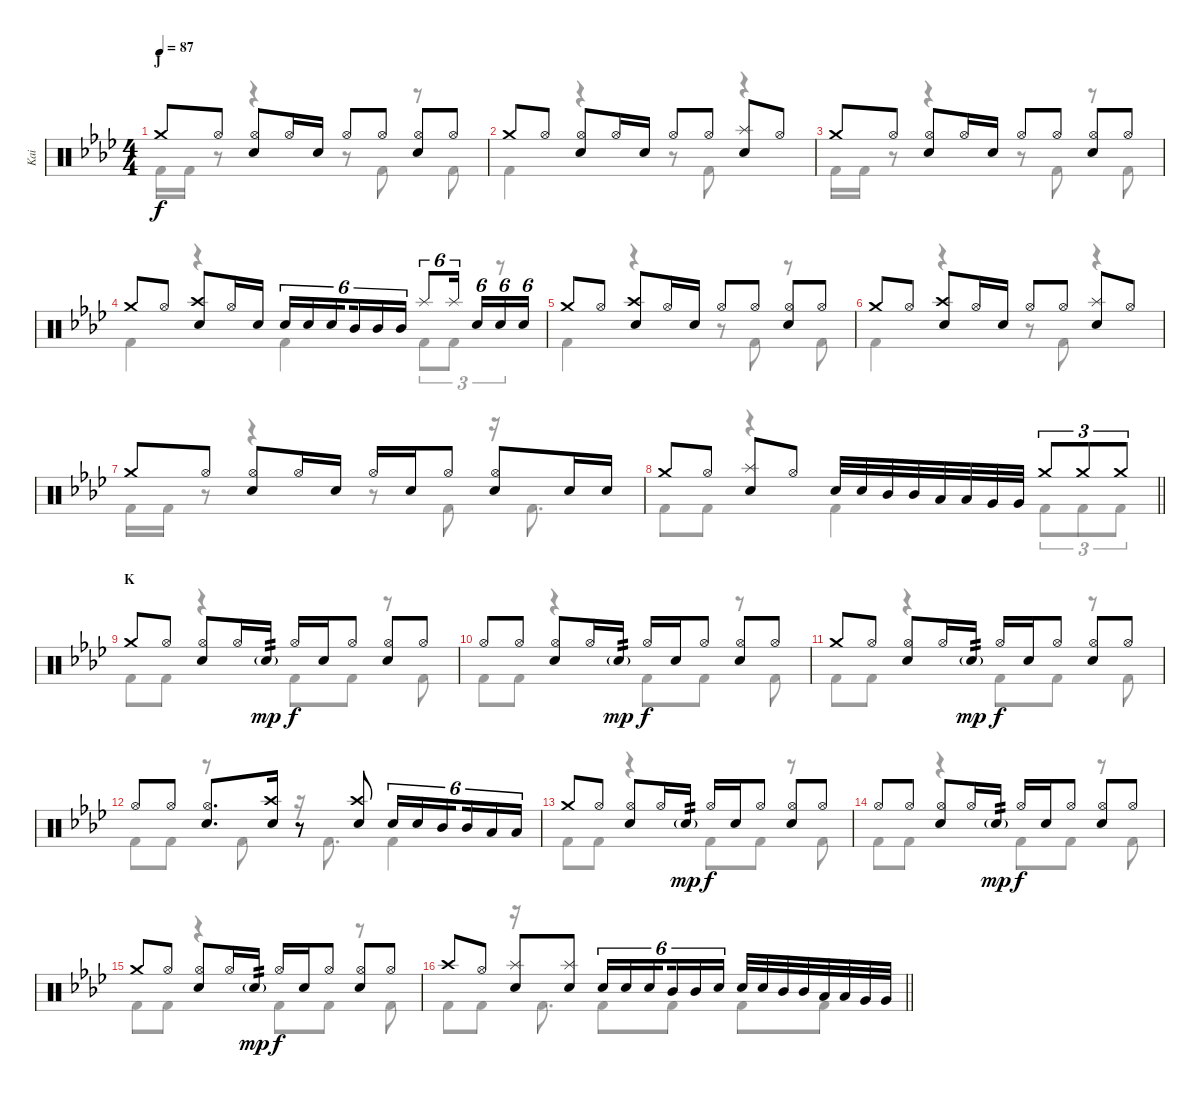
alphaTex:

\track ("Kai" "Kai") {instrument percussion}
\staff {score}
\articulation defaults
\voice
\ts (4 4)
\section ("" "J")
\tempo 87
\clef neutral
\ks ab "Crash medium (hit)".8{dy f} "Hi-Hat (open)".8
("Hi-Hat (open)" "Snare (hit) 2").8 "Hi-Hat (open)".16 "Snare (hit) 2".16 "Hi-Hat (open)".8 "Hi-Hat (open)".8 ("Hi-Hat (open)" "Snare (hit) 2").8 "Hi-Hat (open)".8 |
"Crash medium (hit)".8 "Hi-Hat (open)".8 ("Hi-Hat (open)" "Snare (hit) 2").8 "Hi-Hat (open)".16 "Snare (hit) 2".16 "Hi-Hat (open)".8 "Hi-Hat (open)".8 ("Splash (hit)" "Snare (hit) 2").8 "Hi-Hat (open)".8 |
"Crash medium (hit)".8 "Hi-Hat (open)".8 ("Hi-Hat (open)" "Snare (hit) 2").8 "Hi-Hat (open)".16 "Snare (hit) 2".16 "Hi-Hat (open)".8 "Hi-Hat (open)".8 ("Hi-Hat (open)" "Snare (hit) 2").8 "Hi-Hat (open)".8 |
"Crash medium (hit)".8 "Hi-Hat (open)".8 ("Crash high (hit)" "Snare (hit) 2").8 "Hi-Hat (open)".16 "Snare (hit) 2".16 "Snare (hit) 2".16{tu (6 4)} "Snare (hit) 2".16{tu (6 4)} "Snare (hit) 2".16{tu (6 4) beam splitsecondary} "Mid Tom (hit)".16{tu (6 4)} "Mid Tom (hit)".16{tu (6 4)} "Mid Tom (hit)".16{tu (6 4)} "Splash (hit)".8{tu (6 4)} "Splash (hit)".16{tu (6 4) beam splitsecondary} "Snare (hit) 2".16{tu (6 4)} "Snare (hit) 2".16{tu (6 4)} "Snare (hit) 2".16{tu (6 4)} |
"Crash medium (hit)".8 "Hi-Hat (open)".8 ("Crash high (hit)" "Snare (hit) 2").8 "Hi-Hat (open)".16 "Snare (hit) 2".16 "Hi-Hat (open)".8 "Hi-Hat (open)".8 ("Hi-Hat (open)" "Snare (hit) 2").8 "Hi-Hat (open)".8 |
"Crash medium (hit)".8 "Hi-Hat (open)".8 ("Crash high (hit)" "Snare (hit) 2").8 "Hi-Hat (open)".16 "Snare (hit) 2".16 "Hi-Hat (open)".8 "Hi-Hat (open)".8 ("Splash (hit)" "Snare (hit) 2").8 "Hi-Hat (open)".8 |
"Crash medium (hit)".8 "Hi-Hat (open)".8 ("Hi-Hat (open)" "Snare (hit) 2").8 "Hi-Hat (open)".16 "Snare (hit) 2".16 "Hi-Hat (open)".16 "Snare (hit) 2".16 "Hi-Hat (open)".8 ("Hi-Hat (open)" "Snare (hit) 2").8 "Snare (hit) 2".16 "Snare (hit) 2".16 |
\barLineRight lightlight "Crash medium (hit)".8 "Hi-Hat (open)".8
("Splash (hit)" "Snare (hit) 2").8 "Hi-Hat (open)".8 "Snare (hit) 2".32 "Snare (hit) 2".32 "Mid Tom (hit)".32 "Mid Tom (hit)".32 "Low Tom (hit)".32 "Low Tom (hit)".32 "Very Low Tom (hit)".32 "Very Low Tom (hit)".32 "Crash medium (hit)".8{tu (3 2)} "Crash medium (hit)".8{tu (3 2)} "Crash medium (hit)".8{tu (3 2)} |
\section ("" "K")
"Crash medium (hit)".8 "Hi-Hat (open)".8 ("Hi-Hat (open)" "Snare (hit) 2").8 "Hi-Hat (open)".16 "Snare (hit) 2"{g}.16{tp 2 dy mp} "Hi-Hat (open)".16{dy f} "Snare (hit) 2".16 "Hi-Hat (open)".8 ("Hi-Hat (open)" "Snare (hit) 2").8 "Hi-Hat (open)".8 |
"Hi-Hat (open)".8 "Hi-Hat (open)".8 ("Hi-Hat (open)" "Snare (hit) 2").8 "Hi-Hat (open)".16 "Snare (hit) 2"{g}.16{tp 2 dy mp} "Hi-Hat (open)".16{dy f} "Snare (hit) 2".16 "Hi-Hat (open)".8 ("Hi-Hat (open)" "Snare (hit) 2").8 "Hi-Hat (open)".8 |
"Crash medium (hit)".8 "Hi-Hat (open)".8 ("Hi-Hat (open)" "Snare (hit) 2").8 "Hi-Hat (open)".16 "Snare (hit) 2"{g}.16{tp 2 dy mp} "Hi-Hat (open)".16{dy f} "Snare (hit) 2".16 "Hi-Hat (open)".8 ("Hi-Hat (open)" "Snare (hit) 2").8 "Hi-Hat (open)".8 |
"Hi-Hat (open)".8 "Hi-Hat (open)".8 ("Hi-Hat (open)" "Snare (hit) 2").8{d} ("Crash high (hit)" "Snare (hit) 2").16 r.8 ("Crash high (hit)" "Snare (hit) 2").8 "Snare (hit) 2".16{tu (6 4)} "Snare (hit) 2".16{tu (6 4)} "Mid Tom (hit)".16{tu (6 4) beam splitsecondary} "Mid Tom (hit)".16{tu (6 4)} "Low Tom (hit)".16{tu (6 4)} "Low Tom (hit)".16{tu (6 4)} |
"Crash medium (hit)".8 "Hi-Hat (open)".8 ("Hi-Hat (open)" "Snare (hit) 2").8 "Hi-Hat (open)".16 "Snare (hit) 2"{g}.16{tp 2 dy mp} "Hi-Hat (open)".16{dy f} "Snare (hit) 2".16 "Hi-Hat (open)".8 ("Hi-Hat (open)" "Snare (hit) 2").8 "Hi-Hat (open)".8 |
"Hi-Hat (open)".8 "Hi-Hat (open)".8 ("Hi-Hat (open)" "Snare (hit) 2").8 "Hi-Hat (open)".16 "Snare (hit) 2"{g}.16{tp 2 dy mp} "Hi-Hat (open)".16{dy f} "Snare (hit) 2".16 "Hi-Hat (open)".8 ("Hi-Hat (open)" "Snare (hit) 2").8 "Hi-Hat (open)".8 |
"Crash medium (hit)".8 "Hi-Hat (open)".8 ("Hi-Hat (open)" "Snare (hit) 2").8 "Hi-Hat (open)".16 "Snare (hit) 2"{g}.16{tp 2 dy mp} "Hi-Hat (open)".16{dy f} "Snare (hit) 2".16 "Hi-Hat (open)".8 ("Hi-Hat (open)" "Snare (hit) 2").8 "Hi-Hat (open)".8 |
\barLineRight lightlight "Crash high (hit)".8 "Hi-Hat (open)".8
("Splash (hit)" "Snare (hit) 2").8 ("Splash (hit)" "Snare (hit) 2").8 "Snare (hit) 2".16{tu (6 4)} "Snare (hit) 2".16{tu (6 4)} "Snare (hit) 2".16{tu (6 4) beam splitsecondary} "Mid Tom (hit)".16{tu (6 4)} "Mid Tom (hit)".16{tu (6 4)} "Snare (hit) 2".16{tu (6 4)} "Snare (hit) 2".32 "Snare (hit) 2".32 "Mid Tom (hit)".32 "Mid Tom (hit)".32 "Low Tom (hit)".32 "Low Tom (hit)".32 "Very Low Tom (hit)".32 "Very Low Tom (hit)".32
\voice
\clef neutral
\ottava regular
\simile none
\ks ab "Kick (hit) 2".16{dy f} "Kick (hit) 2".16
r.8 r.4 r.8 "Kick (hit) 2".8 r.8 "Kick (hit) 2".8 |
"Kick (hit) 2".4 r.4 r.8 "Kick (hit) 2".8 r.4 |
"Kick (hit) 2".16 "Kick (hit) 2".16 r.8 r.4 r.8 "Kick (hit) 2".8 r.8 "Kick (hit) 2".8 |
"Kick (hit) 2".4 r.4 "Kick (hit) 2".4 "Kick (hit) 2".8{tu (3 2)} "Kick (hit) 2".8{tu (3 2)} r.8{tu (3 2)} |
"Kick (hit) 2".4 r.4 r.8 "Kick (hit) 2".8 r.8 "Kick (hit) 2".8 |
"Kick (hit) 2".4 r.4 r.8 "Kick (hit) 2".8 r.4 |
"Kick (hit) 2".16 "Kick (hit) 2".16 r.8 r.4 r.8 "Kick (hit) 2".8 r.16 "Kick (hit) 2".8{d} |
\barLineRight lightlight "Kick (hit) 2".8 "Kick (hit) 2".8
r.4 "Kick (hit) 2".4 "Kick (hit) 2".8{tu (3 2)} "Kick (hit) 2".8{tu (3 2)} "Kick (hit) 2".8{tu (3 2)} |
"Kick (hit) 2".8 "Kick (hit) 2".8 r.4 "Kick (hit) 2".8 "Kick (hit) 2".8 r.8 "Kick (hit) 2".8 |
"Kick (hit) 2".8 "Kick (hit) 2".8 r.4 "Kick (hit) 2".8 "Kick (hit) 2".8 r.8 "Kick (hit) 2".8 |
"Kick (hit) 2".8 "Kick (hit) 2".8 r.4 "Kick (hit) 2".8 "Kick (hit) 2".8 r.8 "Kick (hit) 2".8 |
"Kick (hit) 2".8 "Kick (hit) 2".8 r.8 "Kick (hit) 2".8 r.16 "Kick (hit) 2".8{d} "Kick (hit) 2".4 |
"Kick (hit) 2".8 "Kick (hit) 2".8 r.4 "Kick (hit) 2".8 "Kick (hit) 2".8 r.8 "Kick (hit) 2".8 |
"Kick (hit) 2".8 "Kick (hit) 2".8 r.4 "Kick (hit) 2".8 "Kick (hit) 2".8 r.8 "Kick (hit) 2".8 |
"Kick (hit) 2".8 "Kick (hit) 2".8 r.4 "Kick (hit) 2".8 "Kick (hit) 2".8 r.8 "Kick (hit) 2".8 |
\barLineRight lightlight "Kick (hit) 2".8 "Kick (hit) 2".8
r.16 "Kick (hit) 2".8{d} "Kick (hit) 2".8 "Kick (hit) 2".8 "Kick (hit) 2".8 "Kick (hit) 2".8
